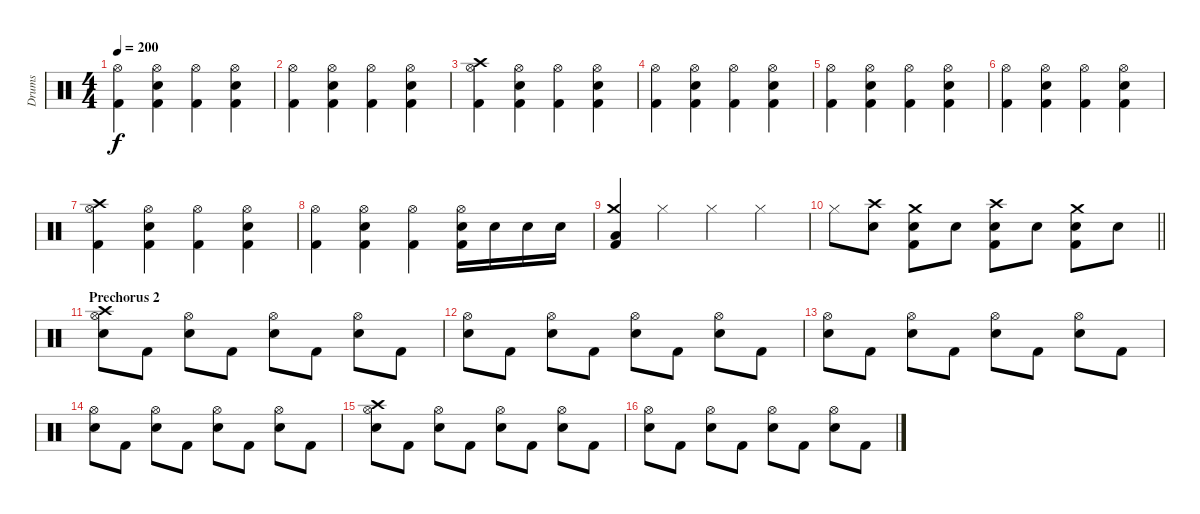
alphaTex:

\track ("Drums" "Drums") {instrument percussion}
\staff {score}
\articulation defaults
\ts (4 4)
\tempo 200
\clef neutral
\ks c
("Hi-Hat (open)" "Kick (hit) 2").4{dy f} ("Hi-Hat (open)" "Snare (hit) 2" "Kick (hit) 2").4 ("Hi-Hat (open)" "Kick (hit) 2").4 ("Hi-Hat (open)" "Snare (hit) 2" "Kick (hit) 2").4 |
("Hi-Hat (open)" "Kick (hit) 2").4 ("Hi-Hat (open)" "Snare (hit) 2" "Kick (hit) 2").4 ("Hi-Hat (open)" "Kick (hit) 2").4 ("Hi-Hat (open)" "Snare (hit) 2" "Kick (hit) 2").4 |
("Crash high (hit)" "Hi-Hat (open)" "Kick (hit) 2").4 ("Hi-Hat (open)" "Snare (hit) 2" "Kick (hit) 2").4 ("Hi-Hat (open)" "Kick (hit) 2").4 ("Hi-Hat (open)" "Snare (hit) 2" "Kick (hit) 2").4 |
("Hi-Hat (open)" "Kick (hit) 2").4 ("Hi-Hat (open)" "Snare (hit) 2" "Kick (hit) 2").4 ("Hi-Hat (open)" "Kick (hit) 2").4 ("Hi-Hat (open)" "Snare (hit) 2" "Kick (hit) 2").4 |
("Hi-Hat (open)" "Kick (hit) 2").4 ("Hi-Hat (open)" "Snare (hit) 2" "Kick (hit) 2").4 ("Hi-Hat (open)" "Kick (hit) 2").4 ("Hi-Hat (open)" "Snare (hit) 2" "Kick (hit) 2").4 |
("Hi-Hat (open)" "Kick (hit) 2").4 ("Hi-Hat (open)" "Snare (hit) 2" "Kick (hit) 2").4 ("Hi-Hat (open)" "Kick (hit) 2").4 ("Hi-Hat (open)" "Snare (hit) 2" "Kick (hit) 2").4 |
("Crash high (hit)" "Hi-Hat (open)" "Kick (hit) 2").4 ("Hi-Hat (open)" "Snare (hit) 2" "Kick (hit) 2").4 ("Hi-Hat (open)" "Kick (hit) 2").4 ("Hi-Hat (open)" "Snare (hit) 2" "Kick (hit) 2").4 |
("Hi-Hat (open)" "Kick (hit) 2").4 ("Hi-Hat (open)" "Snare (hit) 2" "Kick (hit) 2").4 ("Hi-Hat (open)" "Kick (hit) 2").4 ("Hi-Hat (open)" "Snare (hit) 2" "Kick (hit) 2").16 "Snare (hit) 2".16 "Snare (hit) 2".16 "Snare (hit) 2".16 |
("Crash medium (hit)" "Low Floor Tom (hit)" "Kick (hit) 2").4 "Hi-Hat (closed)".4 "Hi-Hat (closed)".4 "Hi-Hat (closed)".4 |
\barLineRight lightlight "Hi-Hat (closed)".8
("Crash high (hit)" "Snare (hit) 2").8 ("Crash medium (hit)" "Snare (hit) 2" "Kick (hit) 2").8 "Snare (hit) 2".8 ("Crash high (hit)" "Snare (hit) 2" "Kick (hit) 2").8 "Snare (hit) 2".8 ("Crash medium (hit)" "Snare (hit) 2" "Kick (hit) 2").8 "Snare (hit) 2".8 |
\section ("" "Prechorus 2")
("Crash high (hit)" "Hi-Hat (open)" "Snare (hit) 2").8 "Kick (hit) 2".8 ("Hi-Hat (open)" "Snare (hit) 2").8 "Kick (hit) 2".8 ("Hi-Hat (open)" "Snare (hit) 2").8 "Kick (hit) 2".8 ("Hi-Hat (open)" "Snare (hit) 2").8 "Kick (hit) 2".8 |
("Hi-Hat (open)" "Snare (hit) 2").8 "Kick (hit) 2".8 ("Hi-Hat (open)" "Snare (hit) 2").8 "Kick (hit) 2".8 ("Hi-Hat (open)" "Snare (hit) 2").8 "Kick (hit) 2".8 ("Hi-Hat (open)" "Snare (hit) 2").8 "Kick (hit) 2".8 |
("Hi-Hat (open)" "Snare (hit) 2").8 "Kick (hit) 2".8 ("Hi-Hat (open)" "Snare (hit) 2").8 "Kick (hit) 2".8 ("Hi-Hat (open)" "Snare (hit) 2").8 "Kick (hit) 2".8 ("Hi-Hat (open)" "Snare (hit) 2").8 "Kick (hit) 2".8 |
("Hi-Hat (open)" "Snare (hit) 2").8 "Kick (hit) 2".8 ("Hi-Hat (open)" "Snare (hit) 2").8 "Kick (hit) 2".8 ("Hi-Hat (open)" "Snare (hit) 2").8 "Kick (hit) 2".8 ("Hi-Hat (open)" "Snare (hit) 2").8 "Kick (hit) 2".8 |
("Crash high (hit)" "Hi-Hat (open)" "Snare (hit) 2").8 "Kick (hit) 2".8 ("Hi-Hat (open)" "Snare (hit) 2").8 "Kick (hit) 2".8 ("Hi-Hat (open)" "Snare (hit) 2").8 "Kick (hit) 2".8 ("Hi-Hat (open)" "Snare (hit) 2").8 "Kick (hit) 2".8 |
("Hi-Hat (open)" "Snare (hit) 2").8 "Kick (hit) 2".8 ("Hi-Hat (open)" "Snare (hit) 2").8 "Kick (hit) 2".8 ("Hi-Hat (open)" "Snare (hit) 2").8 "Kick (hit) 2".8 ("Hi-Hat (open)" "Snare (hit) 2").8 "Kick (hit) 2".8
